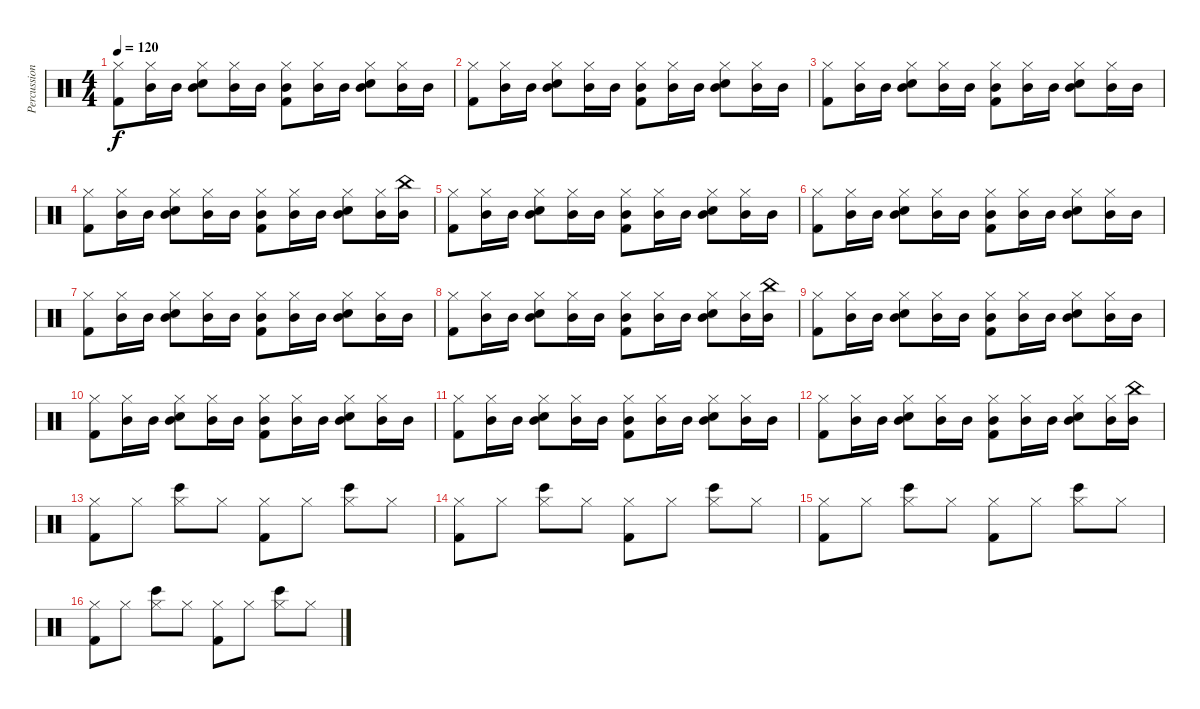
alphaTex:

\track ("Percussions" "Percussion") {instrument percussion}
\staff {score}
\articulation defaults
\ts (4 4)
\tempo 120
\clef neutral
\ks c
("Kick (hit) 2" "Hi-Hat (closed)").8{dy f} ("Mid Tom (hit)" "Hi-Hat (closed)").16 "Mid Tom (hit)".16 ("Mid Tom (hit)" "Hi-Hat (closed)" "Electric Snare (hit)").8 ("Mid Tom (hit)" "Hi-Hat (closed)").16 "Mid Tom (hit)".16 ("Mid Tom (hit)" "Hi-Hat (closed)" "Kick (hit) 2").8 ("Mid Tom (hit)" "Hi-Hat (closed)").16 "Mid Tom (hit)".16 ("Mid Tom (hit)" "Hi-Hat (closed)" "Electric Snare (hit)").8 ("Mid Tom (hit)" "Hi-Hat (closed)").16 "Mid Tom (hit)".16 |
("Kick (hit) 2" "Hi-Hat (closed)").8 ("Mid Tom (hit)" "Hi-Hat (closed)").16 "Mid Tom (hit)".16 ("Mid Tom (hit)" "Hi-Hat (closed)" "Electric Snare (hit)").8 ("Mid Tom (hit)" "Hi-Hat (closed)").16 "Mid Tom (hit)".16 ("Mid Tom (hit)" "Hi-Hat (closed)" "Kick (hit) 2").8 ("Mid Tom (hit)" "Hi-Hat (closed)").16 "Mid Tom (hit)".16 ("Mid Tom (hit)" "Hi-Hat (closed)" "Electric Snare (hit)").8 ("Mid Tom (hit)" "Hi-Hat (closed)").16 "Mid Tom (hit)".16 |
("Kick (hit) 2" "Hi-Hat (closed)").8 ("Mid Tom (hit)" "Hi-Hat (closed)").16 "Mid Tom (hit)".16 ("Mid Tom (hit)" "Hi-Hat (closed)" "Electric Snare (hit)").8 ("Mid Tom (hit)" "Hi-Hat (closed)").16 "Mid Tom (hit)".16 ("Mid Tom (hit)" "Hi-Hat (closed)" "Kick (hit) 2").8 ("Mid Tom (hit)" "Hi-Hat (closed)").16 "Mid Tom (hit)".16 ("Mid Tom (hit)" "Hi-Hat (closed)" "Electric Snare (hit)").8 ("Mid Tom (hit)" "Hi-Hat (closed)").16 "Mid Tom (hit)".16 |
("Kick (hit) 2" "Hi-Hat (closed)").8 ("Mid Tom (hit)" "Hi-Hat (closed)").16 "Mid Tom (hit)".16 ("Mid Tom (hit)" "Hi-Hat (closed)" "Electric Snare (hit)").8 ("Mid Tom (hit)" "Hi-Hat (closed)").16 "Mid Tom (hit)".16 ("Mid Tom (hit)" "Hi-Hat (closed)" "Kick (hit) 2").8 ("Mid Tom (hit)" "Hi-Hat (closed)").16 "Mid Tom (hit)".16 ("Mid Tom (hit)" "Hi-Hat (closed)" "Electric Snare (hit)").8 ("Mid Tom (hit)" "Hi-Hat (closed)").16 ("Mid Tom (hit)" "China (hit)").16 |
("Kick (hit) 2" "Hi-Hat (closed)").8 ("Mid Tom (hit)" "Hi-Hat (closed)").16 "Mid Tom (hit)".16 ("Mid Tom (hit)" "Hi-Hat (closed)" "Electric Snare (hit)").8 ("Mid Tom (hit)" "Hi-Hat (closed)").16 "Mid Tom (hit)".16 ("Mid Tom (hit)" "Hi-Hat (closed)" "Kick (hit) 2").8 ("Mid Tom (hit)" "Hi-Hat (closed)").16 "Mid Tom (hit)".16 ("Mid Tom (hit)" "Hi-Hat (closed)" "Electric Snare (hit)").8 ("Mid Tom (hit)" "Hi-Hat (closed)").16 "Mid Tom (hit)".16 |
("Kick (hit) 2" "Hi-Hat (closed)").8 ("Mid Tom (hit)" "Hi-Hat (closed)").16 "Mid Tom (hit)".16 ("Mid Tom (hit)" "Hi-Hat (closed)" "Electric Snare (hit)").8 ("Mid Tom (hit)" "Hi-Hat (closed)").16 "Mid Tom (hit)".16 ("Mid Tom (hit)" "Hi-Hat (closed)" "Kick (hit) 2").8 ("Mid Tom (hit)" "Hi-Hat (closed)").16 "Mid Tom (hit)".16 ("Mid Tom (hit)" "Hi-Hat (closed)" "Electric Snare (hit)").8 ("Mid Tom (hit)" "Hi-Hat (closed)").16 "Mid Tom (hit)".16 |
("Kick (hit) 2" "Hi-Hat (closed)").8 ("Mid Tom (hit)" "Hi-Hat (closed)").16 "Mid Tom (hit)".16 ("Mid Tom (hit)" "Hi-Hat (closed)" "Electric Snare (hit)").8 ("Mid Tom (hit)" "Hi-Hat (closed)").16 "Mid Tom (hit)".16 ("Mid Tom (hit)" "Hi-Hat (closed)" "Kick (hit) 2").8 ("Mid Tom (hit)" "Hi-Hat (closed)").16 "Mid Tom (hit)".16 ("Mid Tom (hit)" "Hi-Hat (closed)" "Electric Snare (hit)").8 ("Mid Tom (hit)" "Hi-Hat (closed)").16 "Mid Tom (hit)".16 |
("Kick (hit) 2" "Hi-Hat (closed)").8 ("Mid Tom (hit)" "Hi-Hat (closed)").16 "Mid Tom (hit)".16 ("Mid Tom (hit)" "Hi-Hat (closed)" "Electric Snare (hit)").8 ("Mid Tom (hit)" "Hi-Hat (closed)").16 "Mid Tom (hit)".16 ("Mid Tom (hit)" "Hi-Hat (closed)" "Kick (hit) 2").8 ("Mid Tom (hit)" "Hi-Hat (closed)").16 "Mid Tom (hit)".16 ("Mid Tom (hit)" "Hi-Hat (closed)" "Electric Snare (hit)").8 ("Mid Tom (hit)" "Hi-Hat (closed)").16 ("Mid Tom (hit)" "China (hit)").16 |
("Kick (hit) 2" "Hi-Hat (closed)").8 ("Mid Tom (hit)" "Hi-Hat (closed)").16 "Mid Tom (hit)".16 ("Mid Tom (hit)" "Hi-Hat (closed)" "Electric Snare (hit)").8 ("Mid Tom (hit)" "Hi-Hat (closed)").16 "Mid Tom (hit)".16 ("Mid Tom (hit)" "Hi-Hat (closed)" "Kick (hit) 2").8 ("Mid Tom (hit)" "Hi-Hat (closed)").16 "Mid Tom (hit)".16 ("Mid Tom (hit)" "Hi-Hat (closed)" "Electric Snare (hit)").8 ("Mid Tom (hit)" "Hi-Hat (closed)").16 "Mid Tom (hit)".16 |
("Kick (hit) 2" "Hi-Hat (closed)").8 ("Mid Tom (hit)" "Hi-Hat (closed)").16 "Mid Tom (hit)".16 ("Mid Tom (hit)" "Hi-Hat (closed)" "Electric Snare (hit)").8 ("Mid Tom (hit)" "Hi-Hat (closed)").16 "Mid Tom (hit)".16 ("Mid Tom (hit)" "Hi-Hat (closed)" "Kick (hit) 2").8 ("Mid Tom (hit)" "Hi-Hat (closed)").16 "Mid Tom (hit)".16 ("Mid Tom (hit)" "Hi-Hat (closed)" "Electric Snare (hit)").8 ("Mid Tom (hit)" "Hi-Hat (closed)").16 "Mid Tom (hit)".16 |
("Kick (hit) 2" "Hi-Hat (closed)").8 ("Mid Tom (hit)" "Hi-Hat (closed)").16 "Mid Tom (hit)".16 ("Mid Tom (hit)" "Hi-Hat (closed)" "Electric Snare (hit)").8 ("Mid Tom (hit)" "Hi-Hat (closed)").16 "Mid Tom (hit)".16 ("Mid Tom (hit)" "Hi-Hat (closed)" "Kick (hit) 2").8 ("Mid Tom (hit)" "Hi-Hat (closed)").16 "Mid Tom (hit)".16 ("Mid Tom (hit)" "Hi-Hat (closed)" "Electric Snare (hit)").8 ("Mid Tom (hit)" "Hi-Hat (closed)").16 "Mid Tom (hit)".16 |
("Kick (hit) 2" "Hi-Hat (closed)").8 ("Mid Tom (hit)" "Hi-Hat (closed)").16 "Mid Tom (hit)".16 ("Mid Tom (hit)" "Hi-Hat (closed)" "Electric Snare (hit)").8 ("Mid Tom (hit)" "Hi-Hat (closed)").16 "Mid Tom (hit)".16 ("Mid Tom (hit)" "Hi-Hat (closed)" "Kick (hit) 2").8 ("Mid Tom (hit)" "Hi-Hat (closed)").16 "Mid Tom (hit)".16 ("Mid Tom (hit)" "Hi-Hat (closed)" "Electric Snare (hit)").8 ("Mid Tom (hit)" "Hi-Hat (closed)").16 ("Mid Tom (hit)" "China (hit)").16 |
("Hi-Hat (closed)" "Kick (hit) 2").8 "Hi-Hat (closed)".8 ("Hi-Hat (closed)" "Bongo High (hit)").8 "Hi-Hat (closed)".8 ("Hi-Hat (closed)" "Kick (hit) 2").8 "Hi-Hat (closed)".8 ("Hi-Hat (closed)" "Bongo High (hit)").8 "Hi-Hat (closed)".8 |
("Hi-Hat (closed)" "Kick (hit) 2").8 "Hi-Hat (closed)".8 ("Hi-Hat (closed)" "Bongo High (hit)").8 "Hi-Hat (closed)".8 ("Hi-Hat (closed)" "Kick (hit) 2").8 "Hi-Hat (closed)".8 ("Hi-Hat (closed)" "Bongo High (hit)").8 "Hi-Hat (closed)".8 |
("Hi-Hat (closed)" "Kick (hit) 2").8 "Hi-Hat (closed)".8 ("Hi-Hat (closed)" "Bongo High (hit)").8 "Hi-Hat (closed)".8 ("Hi-Hat (closed)" "Kick (hit) 2").8 "Hi-Hat (closed)".8 ("Hi-Hat (closed)" "Bongo High (hit)").8 "Hi-Hat (closed)".8 |
("Hi-Hat (closed)" "Kick (hit) 2").8 "Hi-Hat (closed)".8 ("Hi-Hat (closed)" "Bongo High (hit)").8 "Hi-Hat (closed)".8 ("Hi-Hat (closed)" "Kick (hit) 2").8 "Hi-Hat (closed)".8 ("Hi-Hat (closed)" "Bongo High (hit)").8 "Hi-Hat (closed)".8
